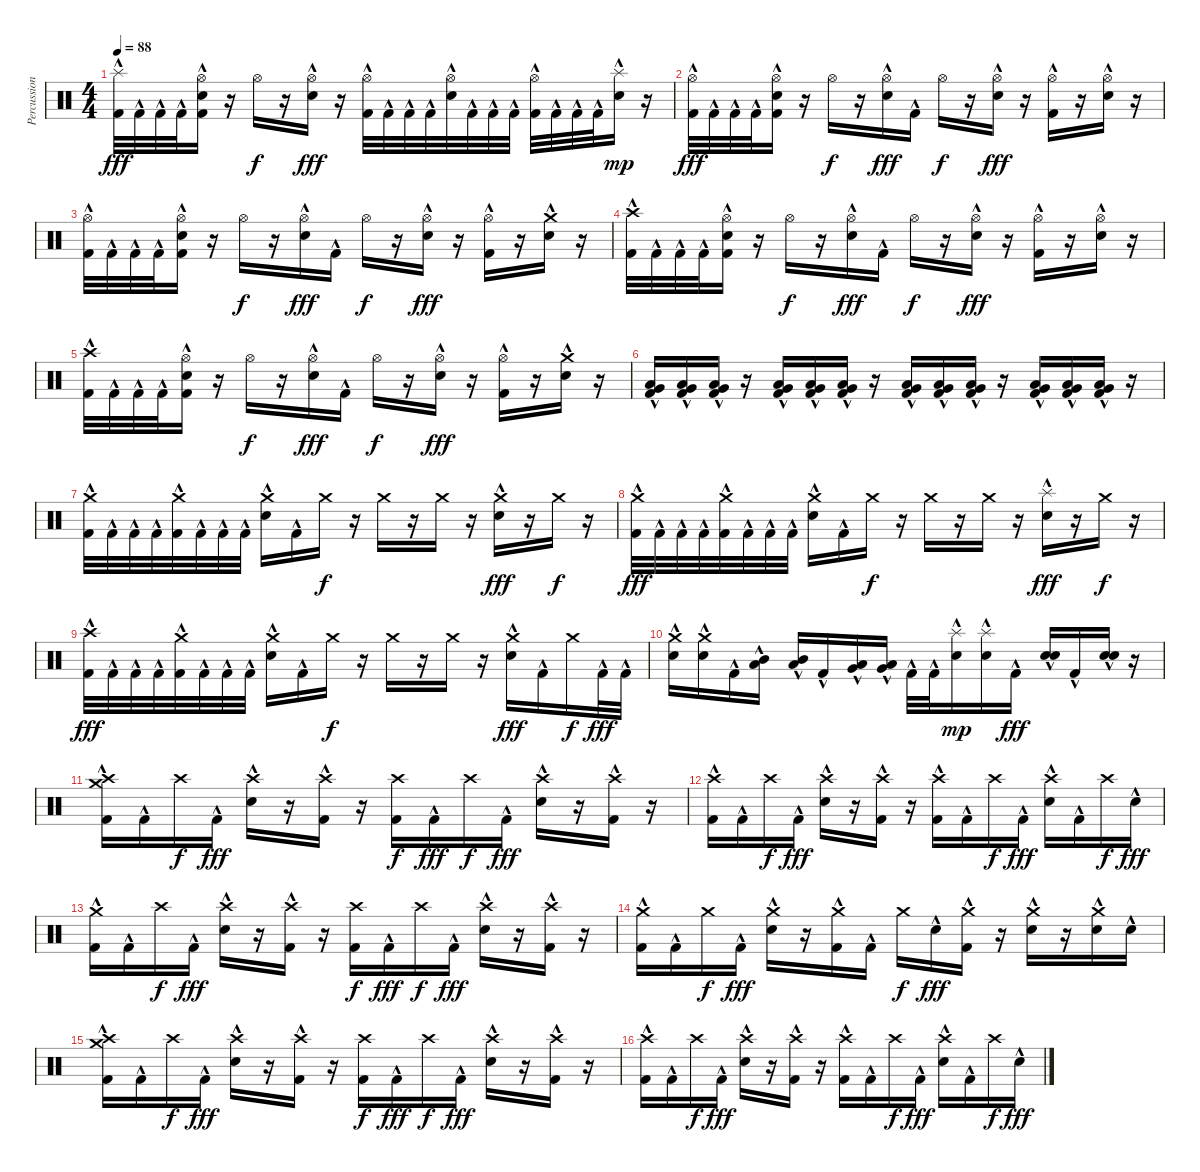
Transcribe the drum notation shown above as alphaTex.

\track ("Percussion" "Percussion") {instrument percussion}
\staff {score}
\articulation defaults
\ts (4 4)
\tempo 88
\clef neutral
\ks c
("Kick (hit) 2"{hac} "Splash (hit)").32{dy fff} "Kick (hit) 2"{hac}.32 "Kick (hit) 2"{hac}.32 "Kick (hit) 2"{hac}.32 ("Kick (hit) 2"{hac} "Electric Snare (hit)" "Hi-Hat (open)").16 r.16 "Hi-Hat (open)".16{dy f} r.16 ("Electric Snare (hit)"{hac} "Hi-Hat (open)").16{dy fff} r.16 ("Kick (hit) 2"{hac} "Hi-Hat (open)").32 "Kick (hit) 2"{hac}.32 "Kick (hit) 2"{hac}.32 "Kick (hit) 2"{hac}.32 ("Electric Snare (hit)"{hac} "Hi-Hat (open)").32 "Kick (hit) 2"{hac}.32 "Kick (hit) 2"{hac}.32 "Kick (hit) 2"{hac}.32 ("Kick (hit) 2"{hac} "Hi-Hat (open)").32 "Kick (hit) 2"{hac}.32 "Kick (hit) 2"{hac}.32 "Kick (hit) 2"{hac}.32 ("Electric Snare (hit)"{hac} "Splash (hit)").16{dy mp} r.16 |
("Kick (hit) 2"{hac} "Hi-Hat (open)").32{dy fff} "Kick (hit) 2"{hac}.32 "Kick (hit) 2"{hac}.32 "Kick (hit) 2"{hac}.32 ("Kick (hit) 2"{hac} "Electric Snare (hit)" "Hi-Hat (open)").16 r.16 "Hi-Hat (open)".16{dy f} r.16 ("Electric Snare (hit)"{hac} "Hi-Hat (open)").16{dy fff} "Kick (hit) 2"{hac}.16 "Hi-Hat (open)".16{dy f} r.16 ("Electric Snare (hit)"{hac} "Hi-Hat (open)").16{dy fff} r.16 ("Kick (hit) 2"{hac} "Hi-Hat (open)").16 r.16 ("Electric Snare (hit)"{hac} "Hi-Hat (open)").16 r.16 |
("Kick (hit) 2"{hac} "Hi-Hat (open)").32 "Kick (hit) 2"{hac}.32 "Kick (hit) 2"{hac}.32 "Kick (hit) 2"{hac}.32 ("Kick (hit) 2"{hac} "Electric Snare (hit)" "Hi-Hat (open)").16 r.16 "Hi-Hat (open)".16{dy f} r.16 ("Electric Snare (hit)"{hac} "Hi-Hat (open)").16{dy fff} "Kick (hit) 2"{hac}.16 "Hi-Hat (open)".16{dy f} r.16 ("Electric Snare (hit)"{hac} "Hi-Hat (open)").16{dy fff} r.16 ("Kick (hit) 2"{hac} "Hi-Hat (open)").16 r.16 ("Electric Snare (hit)"{hac} "Crash medium (hit)").16 r.16 |
("Kick (hit) 2"{hac} "Crash high (hit)").32 "Kick (hit) 2"{hac}.32 "Kick (hit) 2"{hac}.32 "Kick (hit) 2"{hac}.32 ("Kick (hit) 2"{hac} "Electric Snare (hit)" "Hi-Hat (open)").16 r.16 "Hi-Hat (open)".16{dy f} r.16 ("Electric Snare (hit)"{hac} "Hi-Hat (open)").16{dy fff} "Kick (hit) 2"{hac}.16 "Hi-Hat (open)".16{dy f} r.16 ("Electric Snare (hit)"{hac} "Hi-Hat (open)").16{dy fff} r.16 ("Kick (hit) 2"{hac} "Hi-Hat (open)").16 r.16 ("Electric Snare (hit)"{hac} "Hi-Hat (open)").16 r.16 |
("Kick (hit) 2"{hac} "Crash high (hit)").32 "Kick (hit) 2"{hac}.32 "Kick (hit) 2"{hac}.32 "Kick (hit) 2"{hac}.32 ("Kick (hit) 2"{hac} "Electric Snare (hit)" "Hi-Hat (open)").16 r.16 "Hi-Hat (open)".16{dy f} r.16 ("Electric Snare (hit)"{hac} "Hi-Hat (open)").16{dy fff} "Kick (hit) 2"{hac}.16 "Hi-Hat (open)".16{dy f} r.16 ("Electric Snare (hit)"{hac} "Hi-Hat (open)").16{dy fff} r.16 ("Kick (hit) 2"{hac} "Hi-Hat (open)").16 r.16 ("Electric Snare (hit)"{hac} "Crash medium (hit)").16 r.16 |
("Kick (hit) 2"{hac} "Very Low Tom (hit)"{hac} "Low Tom (hit)"{hac}).16 ("Kick (hit) 2"{hac} "Very Low Tom (hit)"{hac} "Low Tom (hit)"{hac}).16 ("Kick (hit) 2"{hac} "Very Low Tom (hit)"{hac} "Low Tom (hit)"{hac}).16 r.16 ("Kick (hit) 2"{hac} "Very Low Tom (hit)"{hac} "Low Tom (hit)"{hac}).16 ("Kick (hit) 2"{hac} "Very Low Tom (hit)"{hac} "Low Tom (hit)"{hac}).16 ("Kick (hit) 2"{hac} "Very Low Tom (hit)"{hac} "Low Tom (hit)"{hac}).16 r.16 ("Kick (hit) 2"{hac} "Very Low Tom (hit)"{hac} "Low Tom (hit)"{hac}).16 ("Kick (hit) 2"{hac} "Very Low Tom (hit)"{hac} "Low Tom (hit)"{hac}).16 ("Kick (hit) 2"{hac} "Very Low Tom (hit)"{hac} "Low Tom (hit)"{hac}).16 r.16 ("Kick (hit) 2"{hac} "Very Low Tom (hit)"{hac} "Low Tom (hit)"{hac}).16 ("Kick (hit) 2"{hac} "Very Low Tom (hit)"{hac} "Low Tom (hit)"{hac}).16 ("Kick (hit) 2"{hac} "Very Low Tom (hit)"{hac} "Low Tom (hit)"{hac}).16 r.16 |
("Kick (hit) 2"{hac} "Crash medium (hit)").32 "Kick (hit) 2"{hac}.32 "Kick (hit) 2"{hac}.32 "Kick (hit) 2"{hac}.32 ("Kick (hit) 2"{hac} "Crash medium (hit)").32 "Kick (hit) 2"{hac}.32 "Kick (hit) 2"{hac}.32 "Kick (hit) 2"{hac}.32 ("Electric Snare (hit)"{hac} "Crash medium (hit)").16 "Kick (hit) 2"{hac}.16 "Crash medium (hit)".16{dy f} r.16 "Crash medium (hit)".16 r.16 "Crash medium (hit)".16 r.16 ("Electric Snare (hit)"{hac} "Crash medium (hit)").16{dy fff} r.16 "Crash medium (hit)".16{dy f} r.16 |
("Kick (hit) 2"{hac} "Crash medium (hit)").32{dy fff} "Kick (hit) 2"{hac}.32 "Kick (hit) 2"{hac}.32 "Kick (hit) 2"{hac}.32 ("Kick (hit) 2"{hac} "Crash medium (hit)").32 "Kick (hit) 2"{hac}.32 "Kick (hit) 2"{hac}.32 "Kick (hit) 2"{hac}.32 ("Electric Snare (hit)"{hac} "Crash medium (hit)").16 "Kick (hit) 2"{hac}.16 "Crash medium (hit)".16{dy f} r.16 "Crash medium (hit)".16 r.16 "Crash medium (hit)".16 r.16 ("Electric Snare (hit)"{hac} "Splash (hit)").16{dy fff} r.16 "Crash medium (hit)".16{dy f} r.16 |
("Kick (hit) 2"{hac} "Crash high (hit)").32{dy fff} "Kick (hit) 2"{hac}.32 "Kick (hit) 2"{hac}.32 "Kick (hit) 2"{hac}.32 ("Kick (hit) 2"{hac} "Crash medium (hit)").32 "Kick (hit) 2"{hac}.32 "Kick (hit) 2"{hac}.32 "Kick (hit) 2"{hac}.32 ("Electric Snare (hit)"{hac} "Crash medium (hit)").16 "Kick (hit) 2"{hac}.16 "Crash medium (hit)".16{dy f} r.16 "Crash medium (hit)".16 r.16 "Crash medium (hit)".16 r.16 ("Electric Snare (hit)"{hac} "Crash medium (hit)").16{dy fff} "Kick (hit) 2"{hac}.16 "Crash medium (hit)".16{dy f} "Kick (hit) 2"{hac}.32{dy fff} "Kick (hit) 2"{hac}.32 |
("Electric Snare (hit)"{hac} "Crash medium (hit)").16 ("Electric Snare (hit)"{hac} "Crash medium (hit)").16 "Kick (hit) 2"{hac}.16 ("Mid Tom (hit)"{hac} "Low Tom (hit)"{hac}).16 ("Mid Tom (hit)"{hac} "Low Tom (hit)"{hac}).16 "Kick (hit) 2"{hac}.16 ("Low Tom (hit)"{hac} "Very Low Tom (hit)"{hac}).16 ("Low Tom (hit)"{hac} "Very Low Tom (hit)"{hac}).16 "Kick (hit) 2"{hac}.32 "Kick (hit) 2"{hac}.32 ("Electric Snare (hit)"{hac} "Splash (hit)").16{dy mp} ("Electric Snare (hit)"{hac} "Splash (hit)").16 "Kick (hit) 2"{hac}.16{dy fff} ("Electric Snare (hit)"{hac} "Electric Snare (hit)"{hac}).16{bd 240} "Kick (hit) 2"{hac}.16 ("Electric Snare (hit)"{hac} "Electric Snare (hit)"{hac}).16{bd 240} r.16 |
("Kick (hit) 2"{hac} "Crash medium (hit)" "Crash high (hit)").16 "Kick (hit) 2"{hac}.16 "Crash high (hit)".16{dy f} "Kick (hit) 2"{hac}.16{dy fff} ("Electric Snare (hit)"{hac} "Crash high (hit)").16 r.16 ("Kick (hit) 2"{hac} "Crash high (hit)").16 r.16 ("Kick (hit) 2" "Crash high (hit)").16{dy f} "Kick (hit) 2"{hac}.16{dy fff} "Crash high (hit)".16{dy f} "Kick (hit) 2"{hac}.16{dy fff} ("Electric Snare (hit)"{hac} "Crash high (hit)").16 r.16 ("Kick (hit) 2"{hac} "Crash high (hit)").16 r.16 |
("Kick (hit) 2"{hac} "Crash high (hit)").16 "Kick (hit) 2"{hac}.16 "Crash high (hit)".16{dy f} "Kick (hit) 2"{hac}.16{dy fff} ("Electric Snare (hit)"{hac} "Crash high (hit)").16 r.16 ("Kick (hit) 2"{hac} "Crash high (hit)").16 r.16 ("Kick (hit) 2"{hac} "Crash high (hit)").16 "Kick (hit) 2"{hac}.16 "Crash high (hit)".16{dy f} "Kick (hit) 2"{hac}.16{dy fff} ("Electric Snare (hit)"{hac} "Crash high (hit)").16 "Kick (hit) 2"{hac}.16 "Crash high (hit)".16{dy f} "Electric Snare (hit)"{hac}.16{dy fff} |
("Kick (hit) 2"{hac} "Crash medium (hit)").16 "Kick (hit) 2"{hac}.16 "Crash high (hit)".16{dy f} "Kick (hit) 2"{hac}.16{dy fff} ("Electric Snare (hit)"{hac} "Crash high (hit)").16 r.16 ("Kick (hit) 2"{hac} "Crash high (hit)").16 r.16 ("Kick (hit) 2" "Crash high (hit)").16{dy f} "Kick (hit) 2"{hac}.16{dy fff} "Crash high (hit)".16{dy f} "Kick (hit) 2"{hac}.16{dy fff} ("Electric Snare (hit)"{hac} "Crash high (hit)").16 r.16 ("Kick (hit) 2"{hac} "Crash high (hit)").16 r.16 |
("Kick (hit) 2"{hac} "Crash medium (hit)").16 "Kick (hit) 2"{hac}.16 "Crash medium (hit)".16{dy f} "Kick (hit) 2"{hac}.16{dy fff} ("Electric Snare (hit)"{hac} "Crash medium (hit)").16 r.16 ("Kick (hit) 2"{hac} "Crash medium (hit)").16 "Kick (hit) 2"{hac}.16 "Crash medium (hit)".16{dy f} "Electric Snare (hit)"{hac}.16{dy fff} ("Kick (hit) 2"{hac} "Crash medium (hit)").16 r.16 ("Electric Snare (hit)"{hac} "Crash medium (hit)").16 r.16 ("Electric Snare (hit)"{hac} "Crash medium (hit)").16 "Electric Snare (hit)"{hac}.16 |
("Kick (hit) 2"{hac} "Crash medium (hit)" "Crash high (hit)").16 "Kick (hit) 2"{hac}.16 "Crash high (hit)".16{dy f} "Kick (hit) 2"{hac}.16{dy fff} ("Electric Snare (hit)"{hac} "Crash high (hit)").16 r.16 ("Kick (hit) 2"{hac} "Crash high (hit)").16 r.16 ("Kick (hit) 2" "Crash high (hit)").16{dy f} "Kick (hit) 2"{hac}.16{dy fff} "Crash high (hit)".16{dy f} "Kick (hit) 2"{hac}.16{dy fff} ("Electric Snare (hit)"{hac} "Crash high (hit)").16 r.16 ("Kick (hit) 2"{hac} "Crash high (hit)").16 r.16 |
("Kick (hit) 2"{hac} "Crash high (hit)").16 "Kick (hit) 2"{hac}.16 "Crash high (hit)".16{dy f} "Kick (hit) 2"{hac}.16{dy fff} ("Electric Snare (hit)"{hac} "Crash high (hit)").16 r.16 ("Kick (hit) 2"{hac} "Crash high (hit)").16 r.16 ("Kick (hit) 2"{hac} "Crash high (hit)").16 "Kick (hit) 2"{hac}.16 "Crash high (hit)".16{dy f} "Kick (hit) 2"{hac}.16{dy fff} ("Electric Snare (hit)"{hac} "Crash high (hit)").16 "Kick (hit) 2"{hac}.16 "Crash high (hit)".16{dy f} "Electric Snare (hit)"{hac}.16{dy fff}
